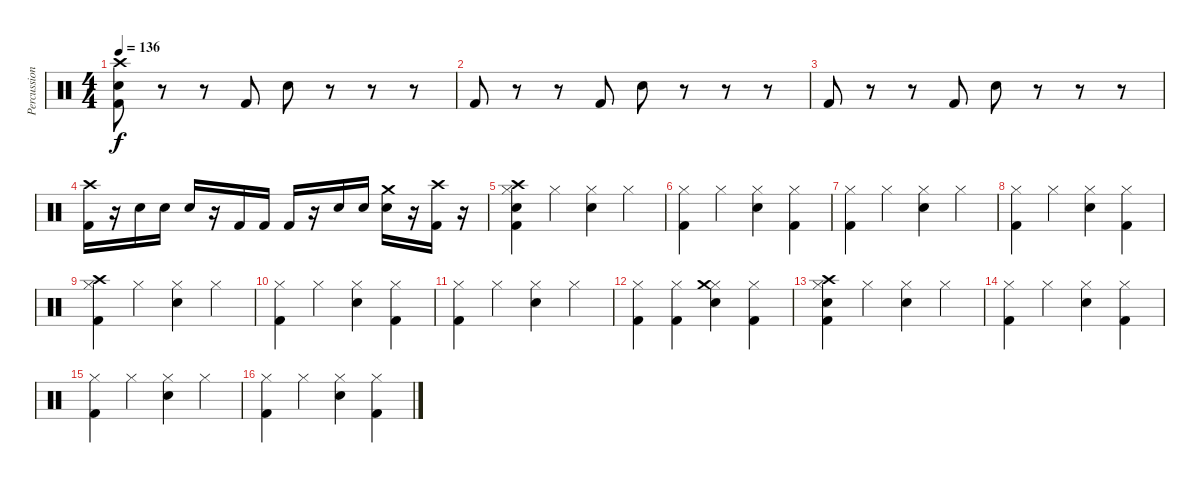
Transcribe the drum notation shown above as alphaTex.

\track ("Percussion" "Percussion") {instrument percussion}
\staff {score}
\articulation defaults
\ts (4 4)
\tempo 136
\clef neutral
\ks c
("Crash high (hit)" "Electric Snare (hit)" "Kick (hit) 2").8{dy f} r.8 r.8 "Kick (hit) 2".8 "Electric Snare (hit)".8 r.8 r.8 r.8 |
"Kick (hit) 2".8 r.8 r.8 "Kick (hit) 2".8 "Electric Snare (hit)".8 r.8 r.8 r.8 |
"Kick (hit) 2".8 r.8 r.8 "Kick (hit) 2".8 "Electric Snare (hit)".8 r.8 r.8 r.8 |
("Crash high (hit)" "Kick (hit) 2").16 r.16 "Electric Snare (hit)".16 "Electric Snare (hit)".16 "Electric Snare (hit)".16 r.16 "Kick (hit) 2".16 "Kick (hit) 2".16 "Kick (hit) 2".16 r.16 "Electric Snare (hit)".16 "Electric Snare (hit)".16 ("Crash medium (hit)" "Electric Snare (hit)").16 r.16 ("Crash high (hit)" "Kick (hit) 2").16 r.16 |
("Hi-Hat (closed)" "Crash high (hit)" "Electric Snare (hit)" "Kick (hit) 2").4 "Hi-Hat (closed)".4 ("Hi-Hat (closed)" "Electric Snare (hit)").4 "Hi-Hat (closed)".4 |
("Hi-Hat (closed)" "Kick (hit) 2").4 "Hi-Hat (closed)".4 ("Hi-Hat (closed)" "Electric Snare (hit)").4 ("Hi-Hat (closed)" "Kick (hit) 2").4 |
("Hi-Hat (closed)" "Kick (hit) 2").4 "Hi-Hat (closed)".4 ("Hi-Hat (closed)" "Electric Snare (hit)").4 "Hi-Hat (closed)".4 |
("Hi-Hat (closed)" "Kick (hit) 2").4 "Hi-Hat (closed)".4 ("Hi-Hat (closed)" "Electric Snare (hit)").4 ("Hi-Hat (closed)" "Kick (hit) 2").4 |
("Hi-Hat (closed)" "Crash high (hit)" "Kick (hit) 2").4 "Hi-Hat (closed)".4 ("Hi-Hat (closed)" "Electric Snare (hit)").4 "Hi-Hat (closed)".4 |
("Hi-Hat (closed)" "Kick (hit) 2").4 "Hi-Hat (closed)".4 ("Hi-Hat (closed)" "Electric Snare (hit)").4 ("Hi-Hat (closed)" "Kick (hit) 2").4 |
("Hi-Hat (closed)" "Kick (hit) 2").4 "Hi-Hat (closed)".4 ("Hi-Hat (closed)" "Electric Snare (hit)").4 "Hi-Hat (closed)".4 |
("Hi-Hat (closed)" "Kick (hit) 2").4 ("Hi-Hat (closed)" "Kick (hit) 2").4 ("Hi-Hat (closed)" "Crash medium (hit)" "Electric Snare (hit)").4 ("Hi-Hat (closed)" "Kick (hit) 2").4 |
("Hi-Hat (closed)" "Crash high (hit)" "Electric Snare (hit)" "Kick (hit) 2").4 "Hi-Hat (closed)".4 ("Hi-Hat (closed)" "Electric Snare (hit)").4 "Hi-Hat (closed)".4 |
("Hi-Hat (closed)" "Kick (hit) 2").4 "Hi-Hat (closed)".4 ("Hi-Hat (closed)" "Electric Snare (hit)").4 ("Hi-Hat (closed)" "Kick (hit) 2").4 |
("Hi-Hat (closed)" "Kick (hit) 2").4 "Hi-Hat (closed)".4 ("Hi-Hat (closed)" "Electric Snare (hit)").4 "Hi-Hat (closed)".4 |
("Hi-Hat (closed)" "Kick (hit) 2").4 "Hi-Hat (closed)".4 ("Hi-Hat (closed)" "Electric Snare (hit)").4 ("Hi-Hat (closed)" "Kick (hit) 2").4
